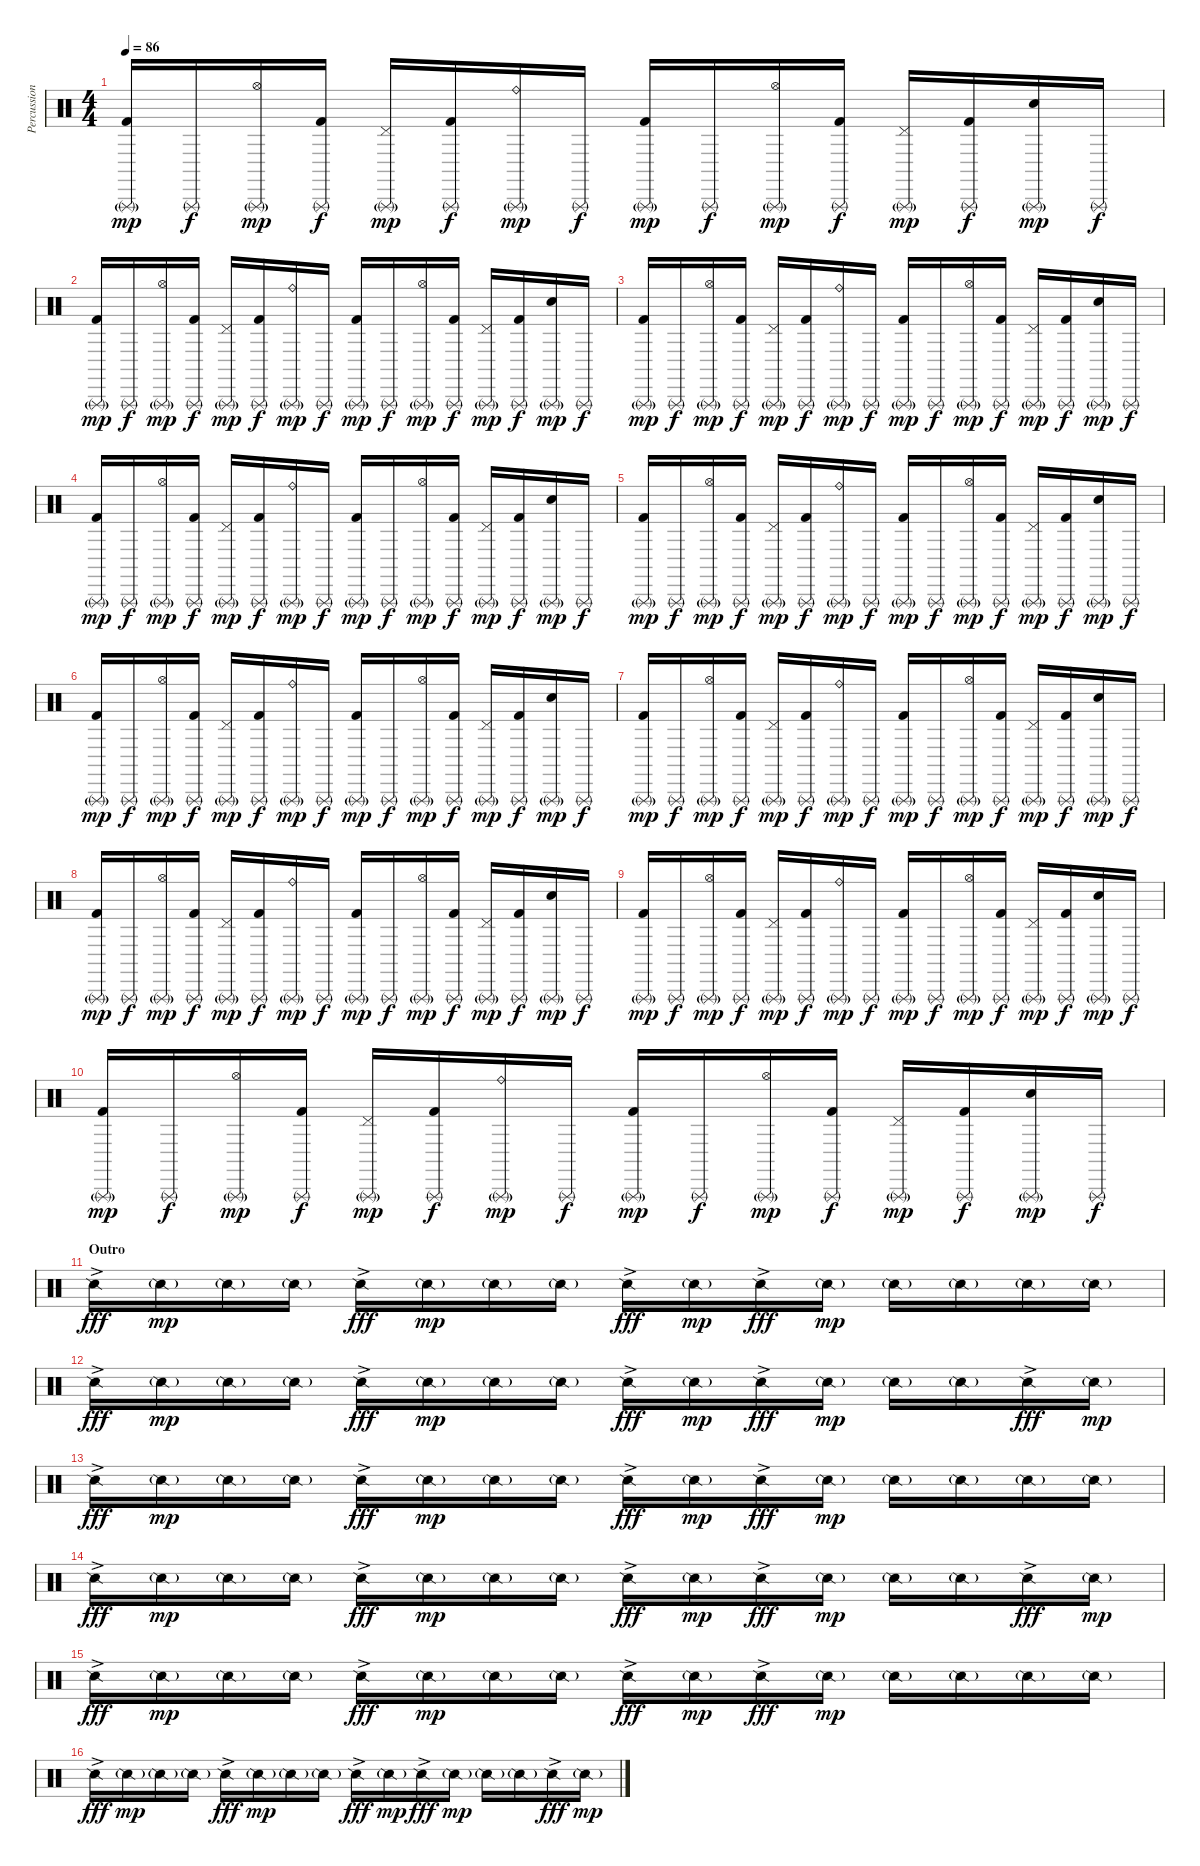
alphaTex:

\track ("Percussion" "Percussion") {instrument percussion}
\staff {score}
\articulation defaults
\ts (4 4)
\tempo 86
\clef neutral
\ks c
("Kick (hit) 2" "Triangle (rnute)"{g}).16{dy mp} "Triangle (rnute)".16{dy f} ("Triangle (rnute)"{g} "Hi-Hat (open)").16{dy mp} ("Kick (hit) 2" "Triangle (rnute)").16{dy f} ("Triangle (rnute)"{g} "Pedal Hi-Hat (hit)").16{dy mp} ("Kick (hit) 2" "Triangle (rnute)").16{dy f} ("Ride (bell)" "Triangle (rnute)"{g}).16{dy mp} "Triangle (rnute)".16{dy f} ("Kick (hit) 2" "Triangle (rnute)"{g}).16{dy mp} "Triangle (rnute)".16{dy f} ("Triangle (rnute)"{g} "Hi-Hat (open)").16{dy mp} ("Kick (hit) 2" "Triangle (rnute)").16{dy f} ("Triangle (rnute)"{g} "Pedal Hi-Hat (hit)").16{dy mp} ("Kick (hit) 2" "Triangle (rnute)").16{dy f} ("Electric Snare (hit)" "Triangle (rnute)"{g}).16{dy mp} "Triangle (rnute)".16{dy f} |
("Kick (hit) 2" "Triangle (rnute)"{g}).16{dy mp} "Triangle (rnute)".16{dy f} ("Triangle (rnute)"{g} "Hi-Hat (open)").16{dy mp} ("Kick (hit) 2" "Triangle (rnute)").16{dy f} ("Triangle (rnute)"{g} "Pedal Hi-Hat (hit)").16{dy mp} ("Kick (hit) 2" "Triangle (rnute)").16{dy f} ("Ride (bell)" "Triangle (rnute)"{g}).16{dy mp} "Triangle (rnute)".16{dy f} ("Kick (hit) 2" "Triangle (rnute)"{g}).16{dy mp} "Triangle (rnute)".16{dy f} ("Triangle (rnute)"{g} "Hi-Hat (open)").16{dy mp} ("Kick (hit) 2" "Triangle (rnute)").16{dy f} ("Triangle (rnute)"{g} "Pedal Hi-Hat (hit)").16{dy mp} ("Kick (hit) 2" "Triangle (rnute)").16{dy f} ("Electric Snare (hit)" "Triangle (rnute)"{g}).16{dy mp} "Triangle (rnute)".16{dy f} |
("Kick (hit) 2" "Triangle (rnute)"{g}).16{dy mp} "Triangle (rnute)".16{dy f} ("Triangle (rnute)"{g} "Hi-Hat (open)").16{dy mp} ("Kick (hit) 2" "Triangle (rnute)").16{dy f} ("Triangle (rnute)"{g} "Pedal Hi-Hat (hit)").16{dy mp} ("Kick (hit) 2" "Triangle (rnute)").16{dy f} ("Ride (bell)" "Triangle (rnute)"{g}).16{dy mp} "Triangle (rnute)".16{dy f} ("Kick (hit) 2" "Triangle (rnute)"{g}).16{dy mp} "Triangle (rnute)".16{dy f} ("Triangle (rnute)"{g} "Hi-Hat (open)").16{dy mp} ("Kick (hit) 2" "Triangle (rnute)").16{dy f} ("Triangle (rnute)"{g} "Pedal Hi-Hat (hit)").16{dy mp} ("Kick (hit) 2" "Triangle (rnute)").16{dy f} ("Electric Snare (hit)" "Triangle (rnute)"{g}).16{dy mp} "Triangle (rnute)".16{dy f} |
("Kick (hit) 2" "Triangle (rnute)"{g}).16{dy mp} "Triangle (rnute)".16{dy f} ("Triangle (rnute)"{g} "Hi-Hat (open)").16{dy mp} ("Kick (hit) 2" "Triangle (rnute)").16{dy f} ("Triangle (rnute)"{g} "Pedal Hi-Hat (hit)").16{dy mp} ("Kick (hit) 2" "Triangle (rnute)").16{dy f} ("Ride (bell)" "Triangle (rnute)"{g}).16{dy mp} "Triangle (rnute)".16{dy f} ("Kick (hit) 2" "Triangle (rnute)"{g}).16{dy mp} "Triangle (rnute)".16{dy f} ("Triangle (rnute)"{g} "Hi-Hat (open)").16{dy mp} ("Kick (hit) 2" "Triangle (rnute)").16{dy f} ("Triangle (rnute)"{g} "Pedal Hi-Hat (hit)").16{dy mp} ("Kick (hit) 2" "Triangle (rnute)").16{dy f} ("Electric Snare (hit)" "Triangle (rnute)"{g}).16{dy mp} "Triangle (rnute)".16{dy f} |
("Kick (hit) 2" "Triangle (rnute)"{g}).16{dy mp} "Triangle (rnute)".16{dy f} ("Triangle (rnute)"{g} "Hi-Hat (open)").16{dy mp} ("Kick (hit) 2" "Triangle (rnute)").16{dy f} ("Triangle (rnute)"{g} "Pedal Hi-Hat (hit)").16{dy mp} ("Kick (hit) 2" "Triangle (rnute)").16{dy f} ("Ride (bell)" "Triangle (rnute)"{g}).16{dy mp} "Triangle (rnute)".16{dy f} ("Kick (hit) 2" "Triangle (rnute)"{g}).16{dy mp} "Triangle (rnute)".16{dy f} ("Triangle (rnute)"{g} "Hi-Hat (open)").16{dy mp} ("Kick (hit) 2" "Triangle (rnute)").16{dy f} ("Triangle (rnute)"{g} "Pedal Hi-Hat (hit)").16{dy mp} ("Kick (hit) 2" "Triangle (rnute)").16{dy f} ("Electric Snare (hit)" "Triangle (rnute)"{g}).16{dy mp} "Triangle (rnute)".16{dy f} |
("Kick (hit) 2" "Triangle (rnute)"{g}).16{dy mp} "Triangle (rnute)".16{dy f} ("Triangle (rnute)"{g} "Hi-Hat (open)").16{dy mp} ("Kick (hit) 2" "Triangle (rnute)").16{dy f} ("Triangle (rnute)"{g} "Pedal Hi-Hat (hit)").16{dy mp} ("Kick (hit) 2" "Triangle (rnute)").16{dy f} ("Ride (bell)" "Triangle (rnute)"{g}).16{dy mp} "Triangle (rnute)".16{dy f} ("Kick (hit) 2" "Triangle (rnute)"{g}).16{dy mp} "Triangle (rnute)".16{dy f} ("Triangle (rnute)"{g} "Hi-Hat (open)").16{dy mp} ("Kick (hit) 2" "Triangle (rnute)").16{dy f} ("Triangle (rnute)"{g} "Pedal Hi-Hat (hit)").16{dy mp} ("Kick (hit) 2" "Triangle (rnute)").16{dy f} ("Electric Snare (hit)" "Triangle (rnute)"{g}).16{dy mp} "Triangle (rnute)".16{dy f} |
("Kick (hit) 2" "Triangle (rnute)"{g}).16{dy mp} "Triangle (rnute)".16{dy f} ("Triangle (rnute)"{g} "Hi-Hat (open)").16{dy mp} ("Kick (hit) 2" "Triangle (rnute)").16{dy f} ("Triangle (rnute)"{g} "Pedal Hi-Hat (hit)").16{dy mp} ("Kick (hit) 2" "Triangle (rnute)").16{dy f} ("Ride (bell)" "Triangle (rnute)"{g}).16{dy mp} "Triangle (rnute)".16{dy f} ("Kick (hit) 2" "Triangle (rnute)"{g}).16{dy mp} "Triangle (rnute)".16{dy f} ("Triangle (rnute)"{g} "Hi-Hat (open)").16{dy mp} ("Kick (hit) 2" "Triangle (rnute)").16{dy f} ("Triangle (rnute)"{g} "Pedal Hi-Hat (hit)").16{dy mp} ("Kick (hit) 2" "Triangle (rnute)").16{dy f} ("Electric Snare (hit)" "Triangle (rnute)"{g}).16{dy mp} "Triangle (rnute)".16{dy f} |
("Kick (hit) 2" "Triangle (rnute)"{g}).16{dy mp} "Triangle (rnute)".16{dy f} ("Triangle (rnute)"{g} "Hi-Hat (open)").16{dy mp} ("Kick (hit) 2" "Triangle (rnute)").16{dy f} ("Triangle (rnute)"{g} "Pedal Hi-Hat (hit)").16{dy mp} ("Kick (hit) 2" "Triangle (rnute)").16{dy f} ("Ride (bell)" "Triangle (rnute)"{g}).16{dy mp} "Triangle (rnute)".16{dy f} ("Kick (hit) 2" "Triangle (rnute)"{g}).16{dy mp} "Triangle (rnute)".16{dy f} ("Triangle (rnute)"{g} "Hi-Hat (open)").16{dy mp} ("Kick (hit) 2" "Triangle (rnute)").16{dy f} ("Triangle (rnute)"{g} "Pedal Hi-Hat (hit)").16{dy mp} ("Kick (hit) 2" "Triangle (rnute)").16{dy f} ("Electric Snare (hit)" "Triangle (rnute)"{g}).16{dy mp} "Triangle (rnute)".16{dy f} |
("Kick (hit) 2" "Triangle (rnute)"{g}).16{dy mp} "Triangle (rnute)".16{dy f} ("Triangle (rnute)"{g} "Hi-Hat (open)").16{dy mp} ("Kick (hit) 2" "Triangle (rnute)").16{dy f} ("Triangle (rnute)"{g} "Pedal Hi-Hat (hit)").16{dy mp} ("Kick (hit) 2" "Triangle (rnute)").16{dy f} ("Ride (bell)" "Triangle (rnute)"{g}).16{dy mp} "Triangle (rnute)".16{dy f} ("Kick (hit) 2" "Triangle (rnute)"{g}).16{dy mp} "Triangle (rnute)".16{dy f} ("Triangle (rnute)"{g} "Hi-Hat (open)").16{dy mp} ("Kick (hit) 2" "Triangle (rnute)").16{dy f} ("Triangle (rnute)"{g} "Pedal Hi-Hat (hit)").16{dy mp} ("Kick (hit) 2" "Triangle (rnute)").16{dy f} ("Electric Snare (hit)" "Triangle (rnute)"{g}).16{dy mp} "Triangle (rnute)".16{dy f} |
("Kick (hit) 2" "Triangle (rnute)"{g}).16{dy mp} "Triangle (rnute)".16{dy f} ("Triangle (rnute)"{g} "Hi-Hat (open)").16{dy mp} ("Kick (hit) 2" "Triangle (rnute)").16{dy f} ("Triangle (rnute)"{g} "Pedal Hi-Hat (hit)").16{dy mp} ("Kick (hit) 2" "Triangle (rnute)").16{dy f} ("Ride (bell)" "Triangle (rnute)"{g}).16{dy mp} "Triangle (rnute)".16{dy f} ("Kick (hit) 2" "Triangle (rnute)"{g}).16{dy mp} "Triangle (rnute)".16{dy f} ("Triangle (rnute)"{g} "Hi-Hat (open)").16{dy mp} ("Kick (hit) 2" "Triangle (rnute)").16{dy f} ("Triangle (rnute)"{g} "Pedal Hi-Hat (hit)").16{dy mp} ("Kick (hit) 2" "Triangle (rnute)").16{dy f} ("Electric Snare (hit)" "Triangle (rnute)"{g}).16{dy mp} "Triangle (rnute)".16{dy f} |
\section ("" "Outro")
"Snare (side stick) 2"{ac}.16{dy fff} "Snare (side stick) 2"{g}.16{dy mp} "Snare (side stick) 2"{g}.16 "Snare (side stick) 2"{g}.16 "Snare (side stick) 2"{ac}.16{dy fff} "Snare (side stick) 2"{g}.16{dy mp} "Snare (side stick) 2"{g}.16 "Snare (side stick) 2"{g}.16 "Snare (side stick) 2"{ac}.16{dy fff} "Snare (side stick) 2"{g}.16{dy mp} "Snare (side stick) 2"{ac}.16{dy fff} "Snare (side stick) 2"{g}.16{dy mp} "Snare (side stick) 2"{g}.16 "Snare (side stick) 2"{g}.16 "Snare (side stick) 2"{g}.16 "Snare (side stick) 2"{g}.16 |
"Snare (side stick) 2"{ac}.16{dy fff} "Snare (side stick) 2"{g}.16{dy mp} "Snare (side stick) 2"{g}.16 "Snare (side stick) 2"{g}.16 "Snare (side stick) 2"{ac}.16{dy fff} "Snare (side stick) 2"{g}.16{dy mp} "Snare (side stick) 2"{g}.16 "Snare (side stick) 2"{g}.16 "Snare (side stick) 2"{ac}.16{dy fff} "Snare (side stick) 2"{g}.16{dy mp} "Snare (side stick) 2"{ac}.16{dy fff} "Snare (side stick) 2"{g}.16{dy mp} "Snare (side stick) 2"{g}.16 "Snare (side stick) 2"{g}.16 "Snare (side stick) 2"{ac}.16{dy fff} "Snare (side stick) 2"{g}.16{dy mp} |
"Snare (side stick) 2"{ac}.16{dy fff} "Snare (side stick) 2"{g}.16{dy mp} "Snare (side stick) 2"{g}.16 "Snare (side stick) 2"{g}.16 "Snare (side stick) 2"{ac}.16{dy fff} "Snare (side stick) 2"{g}.16{dy mp} "Snare (side stick) 2"{g}.16 "Snare (side stick) 2"{g}.16 "Snare (side stick) 2"{ac}.16{dy fff} "Snare (side stick) 2"{g}.16{dy mp} "Snare (side stick) 2"{ac}.16{dy fff} "Snare (side stick) 2"{g}.16{dy mp} "Snare (side stick) 2"{g}.16 "Snare (side stick) 2"{g}.16 "Snare (side stick) 2"{g}.16 "Snare (side stick) 2"{g}.16 |
"Snare (side stick) 2"{ac}.16{dy fff} "Snare (side stick) 2"{g}.16{dy mp} "Snare (side stick) 2"{g}.16 "Snare (side stick) 2"{g}.16 "Snare (side stick) 2"{ac}.16{dy fff} "Snare (side stick) 2"{g}.16{dy mp} "Snare (side stick) 2"{g}.16 "Snare (side stick) 2"{g}.16 "Snare (side stick) 2"{ac}.16{dy fff} "Snare (side stick) 2"{g}.16{dy mp} "Snare (side stick) 2"{ac}.16{dy fff} "Snare (side stick) 2"{g}.16{dy mp} "Snare (side stick) 2"{g}.16 "Snare (side stick) 2"{g}.16 "Snare (side stick) 2"{ac}.16{dy fff} "Snare (side stick) 2"{g}.16{dy mp} |
"Snare (side stick) 2"{ac}.16{dy fff} "Snare (side stick) 2"{g}.16{dy mp} "Snare (side stick) 2"{g}.16 "Snare (side stick) 2"{g}.16 "Snare (side stick) 2"{ac}.16{dy fff} "Snare (side stick) 2"{g}.16{dy mp} "Snare (side stick) 2"{g}.16 "Snare (side stick) 2"{g}.16 "Snare (side stick) 2"{ac}.16{dy fff} "Snare (side stick) 2"{g}.16{dy mp} "Snare (side stick) 2"{ac}.16{dy fff} "Snare (side stick) 2"{g}.16{dy mp} "Snare (side stick) 2"{g}.16 "Snare (side stick) 2"{g}.16 "Snare (side stick) 2"{g}.16 "Snare (side stick) 2"{g}.16 |
"Snare (side stick) 2"{ac}.16{dy fff} "Snare (side stick) 2"{g}.16{dy mp} "Snare (side stick) 2"{g}.16 "Snare (side stick) 2"{g}.16 "Snare (side stick) 2"{ac}.16{dy fff} "Snare (side stick) 2"{g}.16{dy mp} "Snare (side stick) 2"{g}.16 "Snare (side stick) 2"{g}.16 "Snare (side stick) 2"{ac}.16{dy fff} "Snare (side stick) 2"{g}.16{dy mp} "Snare (side stick) 2"{ac}.16{dy fff} "Snare (side stick) 2"{g}.16{dy mp} "Snare (side stick) 2"{g}.16 "Snare (side stick) 2"{g}.16 "Snare (side stick) 2"{ac}.16{dy fff} "Snare (side stick) 2"{g}.16{dy mp}
